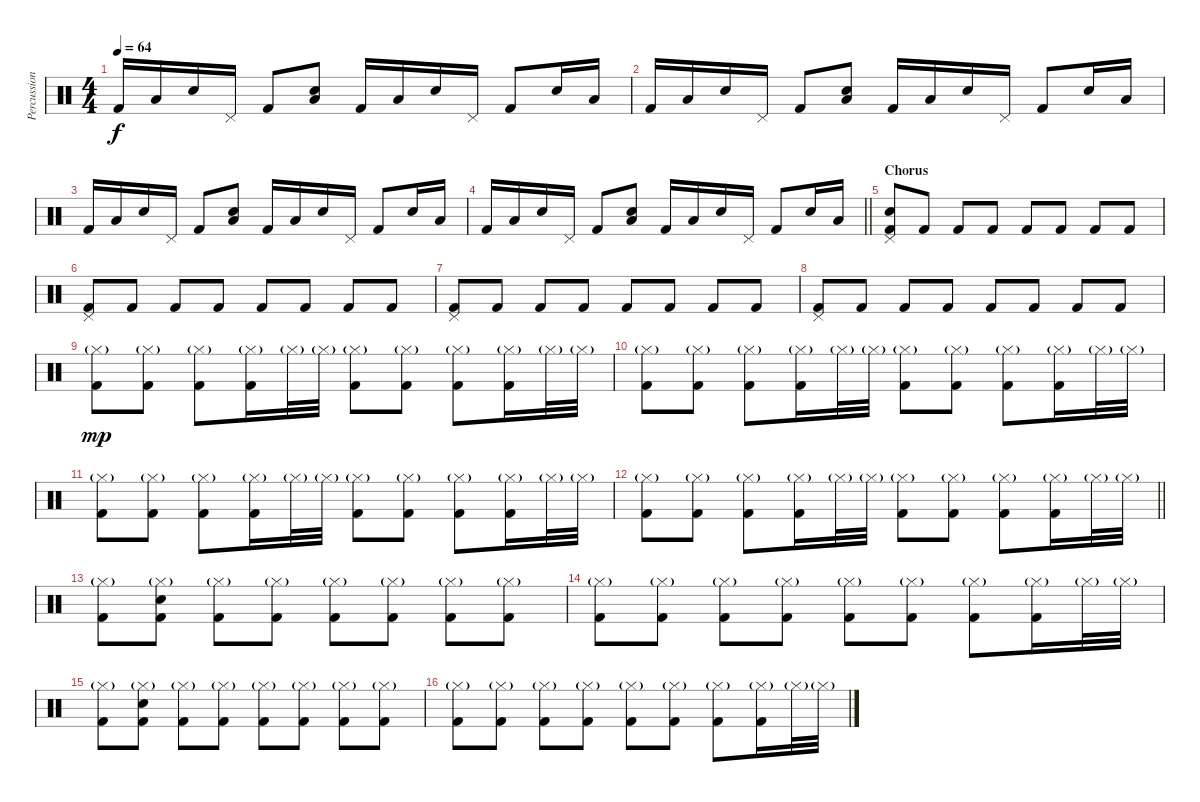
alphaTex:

\track ("Percussion" "Percussion") {instrument percussion}
\staff {score}
\articulation defaults
\ts (4 4)
\tempo 64
\clef neutral
\ks c "Kick (hit) 2".16{dy f} "Low Floor Tom (hit)".16 "Snare (hit) 2".16 "Pedal Hi-Hat (hit)".16 "Kick (hit) 2".8
("Snare (hit) 2" "Low Floor Tom (hit)").8 "Kick (hit) 2".16 "Low Floor Tom (hit)".16 "Snare (hit) 2".16 "Pedal Hi-Hat (hit)".16 "Kick (hit) 2".8 "Snare (hit) 2".16 "Low Floor Tom (hit)".16 |
"Kick (hit) 2".16 "Low Floor Tom (hit)".16 "Snare (hit) 2".16 "Pedal Hi-Hat (hit)".16 "Kick (hit) 2".8 ("Snare (hit) 2" "Low Floor Tom (hit)").8 "Kick (hit) 2".16 "Low Floor Tom (hit)".16 "Snare (hit) 2".16 "Pedal Hi-Hat (hit)".16 "Kick (hit) 2".8 "Snare (hit) 2".16 "Low Floor Tom (hit)".16 |
"Kick (hit) 2".16 "Low Floor Tom (hit)".16 "Snare (hit) 2".16 "Pedal Hi-Hat (hit)".16 "Kick (hit) 2".8 ("Snare (hit) 2" "Low Floor Tom (hit)").8 "Kick (hit) 2".16 "Low Floor Tom (hit)".16 "Snare (hit) 2".16 "Pedal Hi-Hat (hit)".16 "Kick (hit) 2".8 "Snare (hit) 2".16 "Low Floor Tom (hit)".16 |
\barLineRight lightlight "Kick (hit) 2".16 "Low Floor Tom (hit)".16 "Snare (hit) 2".16 "Pedal Hi-Hat (hit)".16 "Kick (hit) 2".8
("Snare (hit) 2" "Low Floor Tom (hit)").8 "Kick (hit) 2".16 "Low Floor Tom (hit)".16 "Snare (hit) 2".16 "Pedal Hi-Hat (hit)".16 "Kick (hit) 2".8 "Snare (hit) 2".16 "Low Floor Tom (hit)".16 |
\section ("" "Chorus")
("Pedal Hi-Hat (hit)" "Snare (hit) 2" "Kick (hit) 2").8 "Kick (hit) 2".8 "Kick (hit) 2".8 "Kick (hit) 2".8 "Kick (hit) 2".8 "Kick (hit) 2".8 "Kick (hit) 2".8 "Kick (hit) 2".8 |
("Pedal Hi-Hat (hit)" "Kick (hit) 2").8 "Kick (hit) 2".8 "Kick (hit) 2".8 "Kick (hit) 2".8 "Kick (hit) 2".8 "Kick (hit) 2".8 "Kick (hit) 2".8 "Kick (hit) 2".8 |
("Pedal Hi-Hat (hit)" "Kick (hit) 2").8 "Kick (hit) 2".8 "Kick (hit) 2".8 "Kick (hit) 2".8 "Kick (hit) 2".8 "Kick (hit) 2".8 "Kick (hit) 2".8 "Kick (hit) 2".8 |
("Pedal Hi-Hat (hit)" "Kick (hit) 2").8 "Kick (hit) 2".8 "Kick (hit) 2".8 "Kick (hit) 2".8 "Kick (hit) 2".8 "Kick (hit) 2".8 "Kick (hit) 2".8 "Kick (hit) 2".8 |
("Hi-Hat (closed)"{g} "Kick (hit) 2").8{dy mp} ("Hi-Hat (closed)"{g} "Kick (hit) 2").8 ("Hi-Hat (closed)"{g} "Kick (hit) 2").8 ("Hi-Hat (closed)"{g} "Kick (hit) 2").16 "Hi-Hat (closed)"{g}.32 "Hi-Hat (closed)"{g}.32 ("Hi-Hat (closed)"{g} "Kick (hit) 2").8 ("Hi-Hat (closed)"{g} "Kick (hit) 2").8 ("Hi-Hat (closed)"{g} "Kick (hit) 2").8 ("Hi-Hat (closed)"{g} "Kick (hit) 2").16 "Hi-Hat (closed)"{g}.32 "Hi-Hat (closed)"{g}.32 |
("Hi-Hat (closed)"{g} "Kick (hit) 2").8 ("Hi-Hat (closed)"{g} "Kick (hit) 2").8 ("Hi-Hat (closed)"{g} "Kick (hit) 2").8 ("Hi-Hat (closed)"{g} "Kick (hit) 2").16 "Hi-Hat (closed)"{g}.32 "Hi-Hat (closed)"{g}.32 ("Hi-Hat (closed)"{g} "Kick (hit) 2").8 ("Hi-Hat (closed)"{g} "Kick (hit) 2").8 ("Hi-Hat (closed)"{g} "Kick (hit) 2").8 ("Hi-Hat (closed)"{g} "Kick (hit) 2").16 "Hi-Hat (closed)"{g}.32 "Hi-Hat (closed)"{g}.32 |
("Hi-Hat (closed)"{g} "Kick (hit) 2").8 ("Hi-Hat (closed)"{g} "Kick (hit) 2").8 ("Hi-Hat (closed)"{g} "Kick (hit) 2").8 ("Hi-Hat (closed)"{g} "Kick (hit) 2").16 "Hi-Hat (closed)"{g}.32 "Hi-Hat (closed)"{g}.32 ("Hi-Hat (closed)"{g} "Kick (hit) 2").8 ("Hi-Hat (closed)"{g} "Kick (hit) 2").8 ("Hi-Hat (closed)"{g} "Kick (hit) 2").8 ("Hi-Hat (closed)"{g} "Kick (hit) 2").16 "Hi-Hat (closed)"{g}.32 "Hi-Hat (closed)"{g}.32 |
\barLineRight lightlight
("Hi-Hat (closed)"{g} "Kick (hit) 2").8 ("Hi-Hat (closed)"{g} "Kick (hit) 2").8 ("Hi-Hat (closed)"{g} "Kick (hit) 2").8 ("Hi-Hat (closed)"{g} "Kick (hit) 2").16 "Hi-Hat (closed)"{g}.32 "Hi-Hat (closed)"{g}.32 ("Hi-Hat (closed)"{g} "Kick (hit) 2").8 ("Hi-Hat (closed)"{g} "Kick (hit) 2").8 ("Hi-Hat (closed)"{g} "Kick (hit) 2").8 ("Hi-Hat (closed)"{g} "Kick (hit) 2").16 "Hi-Hat (closed)"{g}.32 "Hi-Hat (closed)"{g}.32 |
("Hi-Hat (closed)"{g} "Kick (hit) 2").8 ("Hi-Hat (closed)"{g} "Snare (hit) 2" "Kick (hit) 2").8 ("Hi-Hat (closed)"{g} "Kick (hit) 2").8 ("Hi-Hat (closed)"{g} "Kick (hit) 2").8 ("Hi-Hat (closed)"{g} "Kick (hit) 2").8 ("Hi-Hat (closed)"{g} "Kick (hit) 2").8 ("Hi-Hat (closed)"{g} "Kick (hit) 2").8 ("Hi-Hat (closed)"{g} "Kick (hit) 2").8 |
("Hi-Hat (closed)"{g} "Kick (hit) 2").8 ("Hi-Hat (closed)"{g} "Kick (hit) 2").8 ("Hi-Hat (closed)"{g} "Kick (hit) 2").8 ("Hi-Hat (closed)"{g} "Kick (hit) 2").8 ("Hi-Hat (closed)"{g} "Kick (hit) 2").8 ("Hi-Hat (closed)"{g} "Kick (hit) 2").8 ("Hi-Hat (closed)"{g} "Kick (hit) 2").8 ("Hi-Hat (closed)"{g} "Kick (hit) 2").16 "Hi-Hat (closed)"{g}.32 "Hi-Hat (closed)"{g}.32 |
("Hi-Hat (closed)"{g} "Kick (hit) 2").8 ("Hi-Hat (closed)"{g} "Snare (hit) 2" "Kick (hit) 2").8 ("Hi-Hat (closed)"{g} "Kick (hit) 2").8 ("Hi-Hat (closed)"{g} "Kick (hit) 2").8 ("Hi-Hat (closed)"{g} "Kick (hit) 2").8 ("Hi-Hat (closed)"{g} "Kick (hit) 2").8 ("Hi-Hat (closed)"{g} "Kick (hit) 2").8 ("Hi-Hat (closed)"{g} "Kick (hit) 2").8 |
("Hi-Hat (closed)"{g} "Kick (hit) 2").8 ("Hi-Hat (closed)"{g} "Kick (hit) 2").8 ("Hi-Hat (closed)"{g} "Kick (hit) 2").8 ("Hi-Hat (closed)"{g} "Kick (hit) 2").8 ("Hi-Hat (closed)"{g} "Kick (hit) 2").8 ("Hi-Hat (closed)"{g} "Kick (hit) 2").8 ("Hi-Hat (closed)"{g} "Kick (hit) 2").8 ("Hi-Hat (closed)"{g} "Kick (hit) 2").16 "Hi-Hat (closed)"{g}.32 "Hi-Hat (closed)"{g}.32
